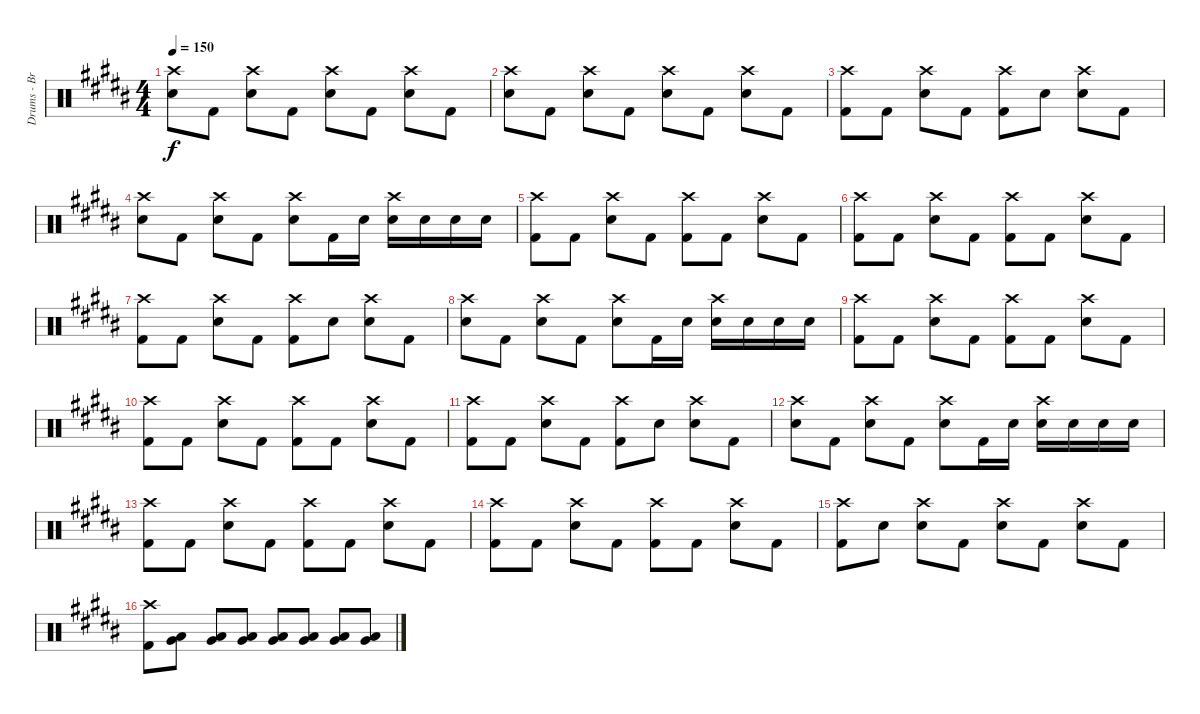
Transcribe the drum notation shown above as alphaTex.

\track ("Drums - Brandon" "Drums - Br") {instrument percussion}
\staff {score}
\articulation defaults
\ts (4 4)
\tempo 150
\clef neutral
\ks b
("Crash high (hit)" "Electric Snare (hit)").8{dy f} "Kick (hit) 2".8 ("Crash high (hit)" "Electric Snare (hit)").8 "Kick (hit) 2".8 ("Crash high (hit)" "Electric Snare (hit)").8 "Kick (hit) 2".8 ("Crash high (hit)" "Electric Snare (hit)").8 "Kick (hit) 2".8 |
("Crash high (hit)" "Electric Snare (hit)").8 "Kick (hit) 2".8 ("Crash high (hit)" "Electric Snare (hit)").8 "Kick (hit) 2".8 ("Crash high (hit)" "Electric Snare (hit)").8 "Kick (hit) 2".8 ("Crash high (hit)" "Electric Snare (hit)").8 "Kick (hit) 2".8 |
("Crash high (hit)" "Kick (hit) 2").8 "Kick (hit) 2".8 ("Crash high (hit)" "Electric Snare (hit)").8 "Kick (hit) 2".8 ("Crash high (hit)" "Kick (hit) 2").8 "Electric Snare (hit)".8 ("Crash high (hit)" "Electric Snare (hit)").8 "Kick (hit) 2".8 |
("Crash high (hit)" "Electric Snare (hit)").8 "Kick (hit) 2".8 ("Crash high (hit)" "Electric Snare (hit)").8 "Kick (hit) 2".8 ("Crash high (hit)" "Electric Snare (hit)").8 "Kick (hit) 2".16 "Electric Snare (hit)".16 ("Crash high (hit)" "Electric Snare (hit)").16 "Electric Snare (hit)".16 "Electric Snare (hit)".16 "Electric Snare (hit)".16 |
("Crash high (hit)" "Kick (hit) 2").8 "Kick (hit) 2".8 ("Crash high (hit)" "Electric Snare (hit)").8 "Kick (hit) 2".8 ("Crash high (hit)" "Kick (hit) 2").8 "Kick (hit) 2".8 ("Crash high (hit)" "Electric Snare (hit)").8 "Kick (hit) 2".8 |
("Crash high (hit)" "Kick (hit) 2").8 "Kick (hit) 2".8 ("Crash high (hit)" "Electric Snare (hit)").8 "Kick (hit) 2".8 ("Crash high (hit)" "Kick (hit) 2").8 "Kick (hit) 2".8 ("Crash high (hit)" "Electric Snare (hit)").8 "Kick (hit) 2".8 |
("Crash high (hit)" "Kick (hit) 2").8 "Kick (hit) 2".8 ("Crash high (hit)" "Electric Snare (hit)").8 "Kick (hit) 2".8 ("Crash high (hit)" "Kick (hit) 2").8 "Electric Snare (hit)".8 ("Crash high (hit)" "Electric Snare (hit)").8 "Kick (hit) 2".8 |
("Crash high (hit)" "Electric Snare (hit)").8 "Kick (hit) 2".8 ("Crash high (hit)" "Electric Snare (hit)").8 "Kick (hit) 2".8 ("Crash high (hit)" "Electric Snare (hit)").8 "Kick (hit) 2".16 "Electric Snare (hit)".16 ("Crash high (hit)" "Electric Snare (hit)").16 "Electric Snare (hit)".16 "Electric Snare (hit)".16 "Electric Snare (hit)".16 |
("Crash high (hit)" "Kick (hit) 2").8 "Kick (hit) 2".8 ("Crash high (hit)" "Electric Snare (hit)").8 "Kick (hit) 2".8 ("Crash high (hit)" "Kick (hit) 2").8 "Kick (hit) 2".8 ("Crash high (hit)" "Electric Snare (hit)").8 "Kick (hit) 2".8 |
("Crash high (hit)" "Kick (hit) 2").8 "Kick (hit) 2".8 ("Crash high (hit)" "Electric Snare (hit)").8 "Kick (hit) 2".8 ("Crash high (hit)" "Kick (hit) 2").8 "Kick (hit) 2".8 ("Crash high (hit)" "Electric Snare (hit)").8 "Kick (hit) 2".8 |
("Crash high (hit)" "Kick (hit) 2").8 "Kick (hit) 2".8 ("Crash high (hit)" "Electric Snare (hit)").8 "Kick (hit) 2".8 ("Crash high (hit)" "Kick (hit) 2").8 "Electric Snare (hit)".8 ("Crash high (hit)" "Electric Snare (hit)").8 "Kick (hit) 2".8 |
("Crash high (hit)" "Electric Snare (hit)").8 "Kick (hit) 2".8 ("Crash high (hit)" "Electric Snare (hit)").8 "Kick (hit) 2".8 ("Crash high (hit)" "Electric Snare (hit)").8 "Kick (hit) 2".16 "Electric Snare (hit)".16 ("Crash high (hit)" "Electric Snare (hit)").16 "Electric Snare (hit)".16 "Electric Snare (hit)".16 "Electric Snare (hit)".16 |
("Crash high (hit)" "Kick (hit) 2").8 "Kick (hit) 2".8 ("Crash high (hit)" "Electric Snare (hit)").8 "Kick (hit) 2".8 ("Crash high (hit)" "Kick (hit) 2").8 "Kick (hit) 2".8 ("Crash high (hit)" "Electric Snare (hit)").8 "Kick (hit) 2".8 |
("Crash high (hit)" "Kick (hit) 2").8 "Kick (hit) 2".8 ("Crash high (hit)" "Electric Snare (hit)").8 "Kick (hit) 2".8 ("Crash high (hit)" "Kick (hit) 2").8 "Kick (hit) 2".8 ("Crash high (hit)" "Electric Snare (hit)").8 "Kick (hit) 2".8 |
("Crash high (hit)" "Kick (hit) 2").8 "Electric Snare (hit)".8 ("Crash high (hit)" "Electric Snare (hit)").8 "Kick (hit) 2".8 ("Crash high (hit)" "Electric Snare (hit)").8 "Kick (hit) 2".8 ("Crash high (hit)" "Electric Snare (hit)").8 "Kick (hit) 2".8 |
("Crash high (hit)" "Kick (hit) 2").8 ("Low Tom (hit)" "Very Low Tom (hit)").8 ("Low Tom (hit)" "Very Low Tom (hit)").8 ("Low Tom (hit)" "Very Low Tom (hit)").8 ("Low Tom (hit)" "Very Low Tom (hit)").8 ("Low Tom (hit)" "Very Low Tom (hit)").8 ("Low Tom (hit)" "Very Low Tom (hit)").8 ("Low Tom (hit)" "Very Low Tom (hit)").8
